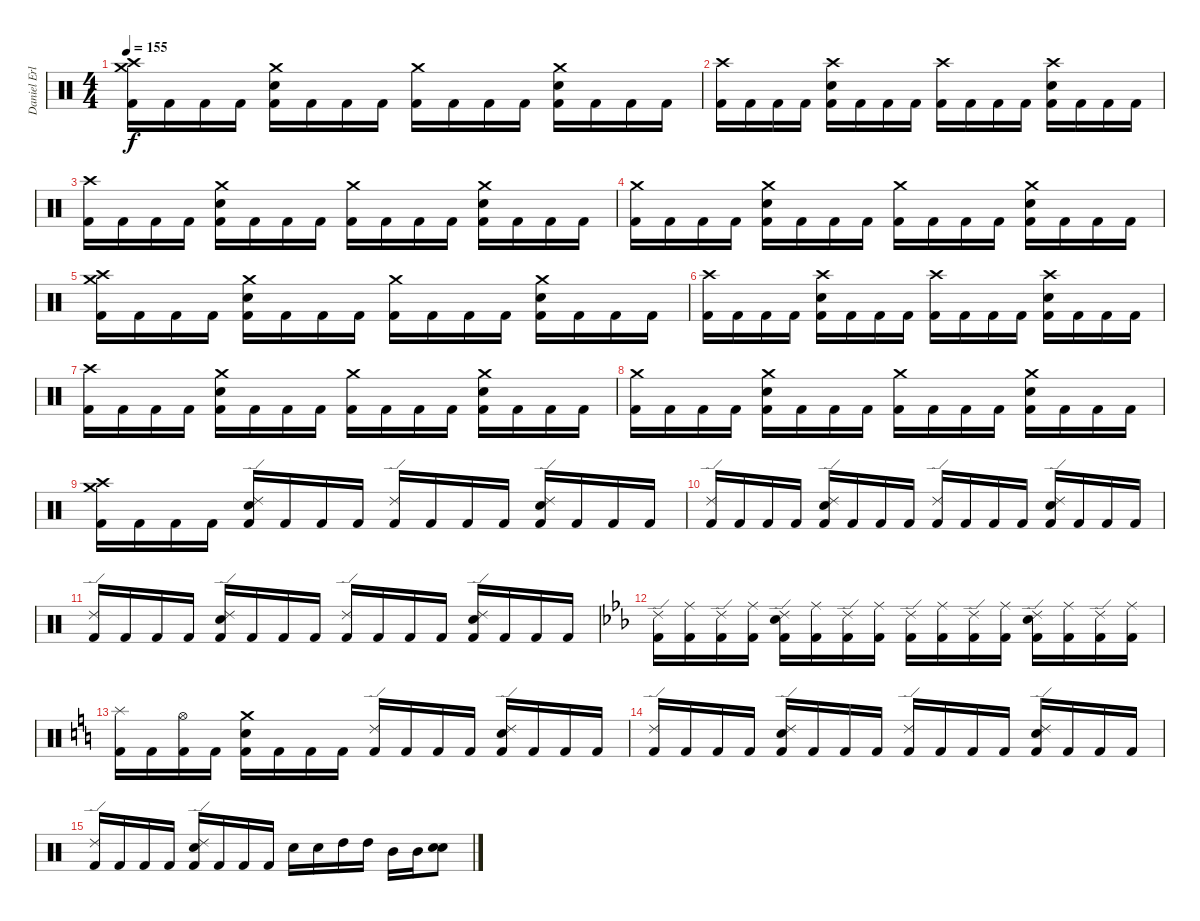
\track ("Daniel Erlandsson" "Daniel Erl") {instrument percussion}
\staff {score}
\articulation defaults
\ts (4 4)
\tempo 155
\clef neutral
\ks c
("Crash high (hit)" "Crash medium (hit)" "Kick (hit) 2").16{dy f} "Kick (hit) 2".16 "Kick (hit) 2".16 "Kick (hit) 2".16 ("Crash medium (hit)" "Snare (hit) 2" "Kick (hit) 2").16 "Kick (hit) 2".16 "Kick (hit) 2".16 "Kick (hit) 2".16 ("Crash medium (hit)" "Kick (hit) 2").16 "Kick (hit) 2".16 "Kick (hit) 2".16 "Kick (hit) 2".16 ("Crash medium (hit)" "Snare (hit) 2" "Kick (hit) 2").16 "Kick (hit) 2".16 "Kick (hit) 2".16 "Kick (hit) 2".16 |
("Crash high (hit)" "Kick (hit) 2").16 "Kick (hit) 2".16 "Kick (hit) 2".16 "Kick (hit) 2".16 ("Crash high (hit)" "Snare (hit) 2" "Kick (hit) 2").16 "Kick (hit) 2".16 "Kick (hit) 2".16 "Kick (hit) 2".16 ("Crash high (hit)" "Kick (hit) 2").16 "Kick (hit) 2".16 "Kick (hit) 2".16 "Kick (hit) 2".16 ("Crash high (hit)" "Snare (hit) 2" "Kick (hit) 2").16 "Kick (hit) 2".16 "Kick (hit) 2".16 "Kick (hit) 2".16 |
("Crash high (hit)" "Kick (hit) 2").16 "Kick (hit) 2".16 "Kick (hit) 2".16 "Kick (hit) 2".16 ("Crash medium (hit)" "Snare (hit) 2" "Kick (hit) 2").16 "Kick (hit) 2".16 "Kick (hit) 2".16 "Kick (hit) 2".16 ("Crash medium (hit)" "Kick (hit) 2").16 "Kick (hit) 2".16 "Kick (hit) 2".16 "Kick (hit) 2".16 ("Crash medium (hit)" "Snare (hit) 2" "Kick (hit) 2").16 "Kick (hit) 2".16 "Kick (hit) 2".16 "Kick (hit) 2".16 |
("Crash medium (hit)" "Kick (hit) 2").16 "Kick (hit) 2".16 "Kick (hit) 2".16 "Kick (hit) 2".16 ("Crash medium (hit)" "Snare (hit) 2" "Kick (hit) 2").16 "Kick (hit) 2".16 "Kick (hit) 2".16 "Kick (hit) 2".16 ("Crash medium (hit)" "Kick (hit) 2").16 "Kick (hit) 2".16 "Kick (hit) 2".16 "Kick (hit) 2".16 ("Crash medium (hit)" "Snare (hit) 2" "Kick (hit) 2").16 "Kick (hit) 2".16 "Kick (hit) 2".16 "Kick (hit) 2".16 |
("Crash high (hit)" "Crash medium (hit)" "Kick (hit) 2").16 "Kick (hit) 2".16 "Kick (hit) 2".16 "Kick (hit) 2".16 ("Crash medium (hit)" "Snare (hit) 2" "Kick (hit) 2").16 "Kick (hit) 2".16 "Kick (hit) 2".16 "Kick (hit) 2".16 ("Crash medium (hit)" "Kick (hit) 2").16 "Kick (hit) 2".16 "Kick (hit) 2".16 "Kick (hit) 2".16 ("Crash medium (hit)" "Snare (hit) 2" "Kick (hit) 2").16 "Kick (hit) 2".16 "Kick (hit) 2".16 "Kick (hit) 2".16 |
("Crash high (hit)" "Kick (hit) 2").16 "Kick (hit) 2".16 "Kick (hit) 2".16 "Kick (hit) 2".16 ("Crash high (hit)" "Snare (hit) 2" "Kick (hit) 2").16 "Kick (hit) 2".16 "Kick (hit) 2".16 "Kick (hit) 2".16 ("Crash high (hit)" "Kick (hit) 2").16 "Kick (hit) 2".16 "Kick (hit) 2".16 "Kick (hit) 2".16 ("Crash high (hit)" "Snare (hit) 2" "Kick (hit) 2").16 "Kick (hit) 2".16 "Kick (hit) 2".16 "Kick (hit) 2".16 |
("Crash high (hit)" "Kick (hit) 2").16 "Kick (hit) 2".16 "Kick (hit) 2".16 "Kick (hit) 2".16 ("Crash medium (hit)" "Snare (hit) 2" "Kick (hit) 2").16 "Kick (hit) 2".16 "Kick (hit) 2".16 "Kick (hit) 2".16 ("Crash medium (hit)" "Kick (hit) 2").16 "Kick (hit) 2".16 "Kick (hit) 2".16 "Kick (hit) 2".16 ("Crash medium (hit)" "Snare (hit) 2" "Kick (hit) 2").16 "Kick (hit) 2".16 "Kick (hit) 2".16 "Kick (hit) 2".16 |
("Crash medium (hit)" "Kick (hit) 2").16 "Kick (hit) 2".16 "Kick (hit) 2".16 "Kick (hit) 2".16 ("Crash medium (hit)" "Snare (hit) 2" "Kick (hit) 2").16 "Kick (hit) 2".16 "Kick (hit) 2".16 "Kick (hit) 2".16 ("Crash medium (hit)" "Kick (hit) 2").16 "Kick (hit) 2".16 "Kick (hit) 2".16 "Kick (hit) 2".16 ("Crash medium (hit)" "Snare (hit) 2" "Kick (hit) 2").16 "Kick (hit) 2".16 "Kick (hit) 2".16 "Kick (hit) 2".16 |
("Crash high (hit)" "Crash medium (hit)" "Kick (hit) 2").16 "Kick (hit) 2".16 "Kick (hit) 2".16 "Kick (hit) 2".16 ("Ride (edge) 2" "Snare (hit) 2" "Kick (hit) 2").16 "Kick (hit) 2".16 "Kick (hit) 2".16 "Kick (hit) 2".16 ("Ride (edge) 2" "Kick (hit) 2").16 "Kick (hit) 2".16 "Kick (hit) 2".16 "Kick (hit) 2".16 ("Ride (edge) 2" "Snare (hit) 2" "Kick (hit) 2").16 "Kick (hit) 2".16 "Kick (hit) 2".16 "Kick (hit) 2".16 |
("Ride (edge) 2" "Kick (hit) 2").16 "Kick (hit) 2".16 "Kick (hit) 2".16 "Kick (hit) 2".16 ("Ride (edge) 2" "Snare (hit) 2" "Kick (hit) 2").16 "Kick (hit) 2".16 "Kick (hit) 2".16 "Kick (hit) 2".16 ("Ride (edge) 2" "Kick (hit) 2").16 "Kick (hit) 2".16 "Kick (hit) 2".16 "Kick (hit) 2".16 ("Ride (edge) 2" "Snare (hit) 2" "Kick (hit) 2").16 "Kick (hit) 2".16 "Kick (hit) 2".16 "Kick (hit) 2".16 |
("Ride (edge) 2" "Kick (hit) 2").16 "Kick (hit) 2".16 "Kick (hit) 2".16 "Kick (hit) 2".16 ("Ride (edge) 2" "Snare (hit) 2" "Kick (hit) 2").16 "Kick (hit) 2".16 "Kick (hit) 2".16 "Kick (hit) 2".16 ("Ride (edge) 2" "Kick (hit) 2").16 "Kick (hit) 2".16 "Kick (hit) 2".16 "Kick (hit) 2".16 ("Ride (edge) 2" "Snare (hit) 2" "Kick (hit) 2").16 "Kick (hit) 2".16 "Kick (hit) 2".16 "Kick (hit) 2".16 |
\ks cminor
("Ride (edge) 2" "Kick (hit) 2").16 ("Ride (middle)" "Kick (hit) 2").16 ("Ride (edge) 2" "Kick (hit) 2").16 ("Ride (middle)" "Kick (hit) 2").16 ("Ride (edge) 2" "Snare (hit) 2" "Kick (hit) 2").16 ("Ride (middle)" "Kick (hit) 2").16 ("Ride (edge) 2" "Kick (hit) 2").16 ("Ride (middle)" "Kick (hit) 2").16 ("Ride (edge) 2" "Kick (hit) 2").16 ("Ride (middle)" "Kick (hit) 2").16 ("Ride (edge) 2" "Kick (hit) 2").16 ("Ride (middle)" "Kick (hit) 2").16 ("Ride (edge) 2" "Snare (hit) 2" "Kick (hit) 2").16 ("Ride (middle)" "Kick (hit) 2").16 ("Ride (edge) 2" "Kick (hit) 2").16 ("Ride (middle)" "Kick (hit) 2").16 |
\ks c
("Splash (hit)" "Kick (hit) 2").16 "Kick (hit) 2".16 ("Hi-Hat (open)" "Kick (hit) 2").16 "Kick (hit) 2".16 ("Crash medium (hit)" "Snare (hit) 2" "Kick (hit) 2").16 "Kick (hit) 2".16 "Kick (hit) 2".16 "Kick (hit) 2".16 ("Ride (edge) 2" "Kick (hit) 2").16 "Kick (hit) 2".16 "Kick (hit) 2".16 "Kick (hit) 2".16 ("Ride (edge) 2" "Snare (hit) 2" "Kick (hit) 2").16 "Kick (hit) 2".16 "Kick (hit) 2".16 "Kick (hit) 2".16 |
("Ride (edge) 2" "Kick (hit) 2").16 "Kick (hit) 2".16 "Kick (hit) 2".16 "Kick (hit) 2".16 ("Ride (edge) 2" "Snare (hit) 2" "Kick (hit) 2").16 "Kick (hit) 2".16 "Kick (hit) 2".16 "Kick (hit) 2".16 ("Ride (edge) 2" "Kick (hit) 2").16 "Kick (hit) 2".16 "Kick (hit) 2".16 "Kick (hit) 2".16 ("Ride (edge) 2" "Snare (hit) 2" "Kick (hit) 2").16 "Kick (hit) 2".16 "Kick (hit) 2".16 "Kick (hit) 2".16 |
("Ride (edge) 2" "Kick (hit) 2").16 "Kick (hit) 2".16 "Kick (hit) 2".16 "Kick (hit) 2".16 ("Ride (edge) 2" "Snare (hit) 2" "Kick (hit) 2").16 "Kick (hit) 2".16 "Kick (hit) 2".16 "Kick (hit) 2".16 "Snare (hit) 2".16 "Snare (hit) 2".16 "High Tom (hit)".16 "High Tom (hit)".16 "Mid Tom (hit)".16 "Mid Tom (hit)".16 ("Snare (hit) 2" "Snare (hit) 2").8{bu 480}
